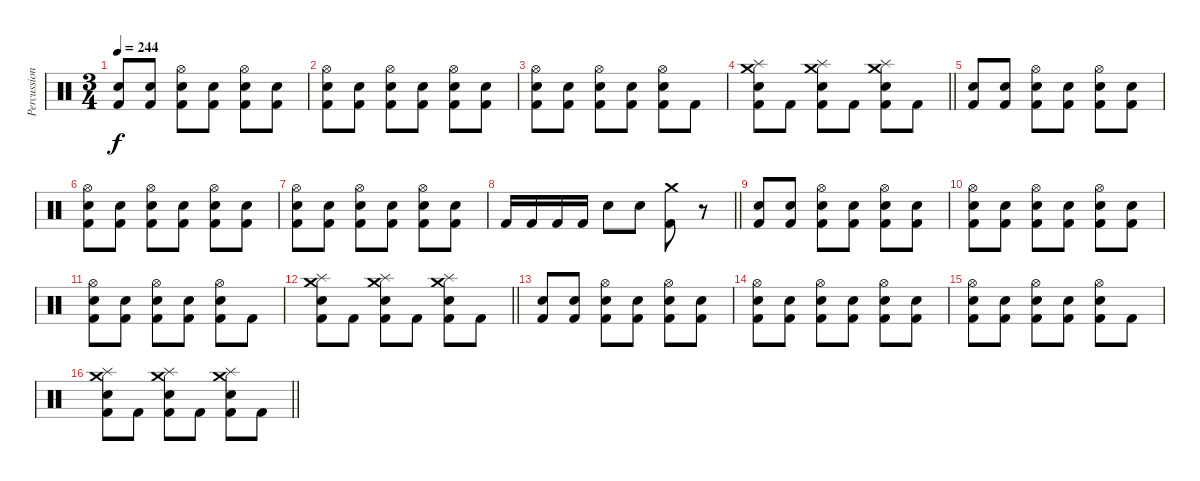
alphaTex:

\track ("Percussion" "Percussion") {instrument percussion}
\staff {score}
\articulation defaults
\ts (3 4)
\tempo 244
\clef neutral
\ks c
("Electric Snare (hit)" "Kick (hit) 2").8{dy f} ("Electric Snare (hit)" "Kick (hit) 2").8 ("Hi-Hat (open)" "Electric Snare (hit)" "Kick (hit) 2").8 ("Electric Snare (hit)" "Kick (hit) 2").8 ("Hi-Hat (open)" "Electric Snare (hit)" "Kick (hit) 2").8 ("Electric Snare (hit)" "Kick (hit) 2").8 |
("Hi-Hat (open)" "Electric Snare (hit)" "Kick (hit) 2").8 ("Electric Snare (hit)" "Kick (hit) 2").8 ("Hi-Hat (open)" "Electric Snare (hit)" "Kick (hit) 2").8 ("Electric Snare (hit)" "Kick (hit) 2").8 ("Hi-Hat (open)" "Electric Snare (hit)" "Kick (hit) 2").8 ("Electric Snare (hit)" "Kick (hit) 2").8 |
("Hi-Hat (open)" "Electric Snare (hit)" "Kick (hit) 2").8 ("Electric Snare (hit)" "Kick (hit) 2").8 ("Hi-Hat (open)" "Electric Snare (hit)" "Kick (hit) 2").8 ("Electric Snare (hit)" "Kick (hit) 2").8 ("Hi-Hat (open)" "Electric Snare (hit)" "Kick (hit) 2").8 "Kick (hit) 2".8 |
\barLineRight lightlight
("Crash medium (hit)" "Splash (hit)" "Electric Snare (hit)" "Kick (hit) 2").8 "Kick (hit) 2".8 ("Crash medium (hit)" "Splash (hit)" "Electric Snare (hit)" "Kick (hit) 2").8 "Kick (hit) 2".8 ("Crash medium (hit)" "Splash (hit)" "Electric Snare (hit)" "Kick (hit) 2").8 "Kick (hit) 2".8 |
("Electric Snare (hit)" "Kick (hit) 2").8 ("Electric Snare (hit)" "Kick (hit) 2").8 ("Hi-Hat (open)" "Electric Snare (hit)" "Kick (hit) 2").8 ("Electric Snare (hit)" "Kick (hit) 2").8 ("Hi-Hat (open)" "Electric Snare (hit)" "Kick (hit) 2").8 ("Electric Snare (hit)" "Kick (hit) 2").8 |
("Hi-Hat (open)" "Electric Snare (hit)" "Kick (hit) 2").8 ("Electric Snare (hit)" "Kick (hit) 2").8 ("Hi-Hat (open)" "Electric Snare (hit)" "Kick (hit) 2").8 ("Electric Snare (hit)" "Kick (hit) 2").8 ("Hi-Hat (open)" "Electric Snare (hit)" "Kick (hit) 2").8 ("Electric Snare (hit)" "Kick (hit) 2").8 |
("Hi-Hat (open)" "Electric Snare (hit)" "Kick (hit) 2").8 ("Electric Snare (hit)" "Kick (hit) 2").8 ("Hi-Hat (open)" "Electric Snare (hit)" "Kick (hit) 2").8 ("Electric Snare (hit)" "Kick (hit) 2").8 ("Hi-Hat (open)" "Electric Snare (hit)" "Kick (hit) 2").8 ("Electric Snare (hit)" "Kick (hit) 2").8 |
\barLineRight lightlight "Kick (hit) 2".16 "Kick (hit) 2".16 "Kick (hit) 2".16 "Kick (hit) 2".16 "Electric Snare (hit)".8 "Electric Snare (hit)".8
("Crash medium (hit)" "Kick (hit) 2").8 r.8 |
("Electric Snare (hit)" "Kick (hit) 2").8 ("Electric Snare (hit)" "Kick (hit) 2").8 ("Hi-Hat (open)" "Electric Snare (hit)" "Kick (hit) 2").8 ("Electric Snare (hit)" "Kick (hit) 2").8 ("Hi-Hat (open)" "Electric Snare (hit)" "Kick (hit) 2").8 ("Electric Snare (hit)" "Kick (hit) 2").8 |
("Hi-Hat (open)" "Electric Snare (hit)" "Kick (hit) 2").8 ("Electric Snare (hit)" "Kick (hit) 2").8 ("Hi-Hat (open)" "Electric Snare (hit)" "Kick (hit) 2").8 ("Electric Snare (hit)" "Kick (hit) 2").8 ("Hi-Hat (open)" "Electric Snare (hit)" "Kick (hit) 2").8 ("Electric Snare (hit)" "Kick (hit) 2").8 |
("Hi-Hat (open)" "Electric Snare (hit)" "Kick (hit) 2").8 ("Electric Snare (hit)" "Kick (hit) 2").8 ("Hi-Hat (open)" "Electric Snare (hit)" "Kick (hit) 2").8 ("Electric Snare (hit)" "Kick (hit) 2").8 ("Hi-Hat (open)" "Electric Snare (hit)" "Kick (hit) 2").8 "Kick (hit) 2".8 |
\barLineRight lightlight
("Crash medium (hit)" "Splash (hit)" "Electric Snare (hit)" "Kick (hit) 2").8 "Kick (hit) 2".8 ("Crash medium (hit)" "Splash (hit)" "Electric Snare (hit)" "Kick (hit) 2").8 "Kick (hit) 2".8 ("Crash medium (hit)" "Splash (hit)" "Electric Snare (hit)" "Kick (hit) 2").8 "Kick (hit) 2".8 |
("Electric Snare (hit)" "Kick (hit) 2").8 ("Electric Snare (hit)" "Kick (hit) 2").8 ("Hi-Hat (open)" "Electric Snare (hit)" "Kick (hit) 2").8 ("Electric Snare (hit)" "Kick (hit) 2").8 ("Hi-Hat (open)" "Electric Snare (hit)" "Kick (hit) 2").8 ("Electric Snare (hit)" "Kick (hit) 2").8 |
("Hi-Hat (open)" "Electric Snare (hit)" "Kick (hit) 2").8 ("Electric Snare (hit)" "Kick (hit) 2").8 ("Hi-Hat (open)" "Electric Snare (hit)" "Kick (hit) 2").8 ("Electric Snare (hit)" "Kick (hit) 2").8 ("Hi-Hat (open)" "Electric Snare (hit)" "Kick (hit) 2").8 ("Electric Snare (hit)" "Kick (hit) 2").8 |
("Hi-Hat (open)" "Electric Snare (hit)" "Kick (hit) 2").8 ("Electric Snare (hit)" "Kick (hit) 2").8 ("Hi-Hat (open)" "Electric Snare (hit)" "Kick (hit) 2").8 ("Electric Snare (hit)" "Kick (hit) 2").8 ("Hi-Hat (open)" "Electric Snare (hit)" "Kick (hit) 2").8 "Kick (hit) 2".8 |
\barLineRight lightlight
("Crash medium (hit)" "Splash (hit)" "Electric Snare (hit)" "Kick (hit) 2").8 "Kick (hit) 2".8 ("Crash medium (hit)" "Splash (hit)" "Electric Snare (hit)" "Kick (hit) 2").8 "Kick (hit) 2".8 ("Crash medium (hit)" "Splash (hit)" "Electric Snare (hit)" "Kick (hit) 2").8 "Kick (hit) 2".8
